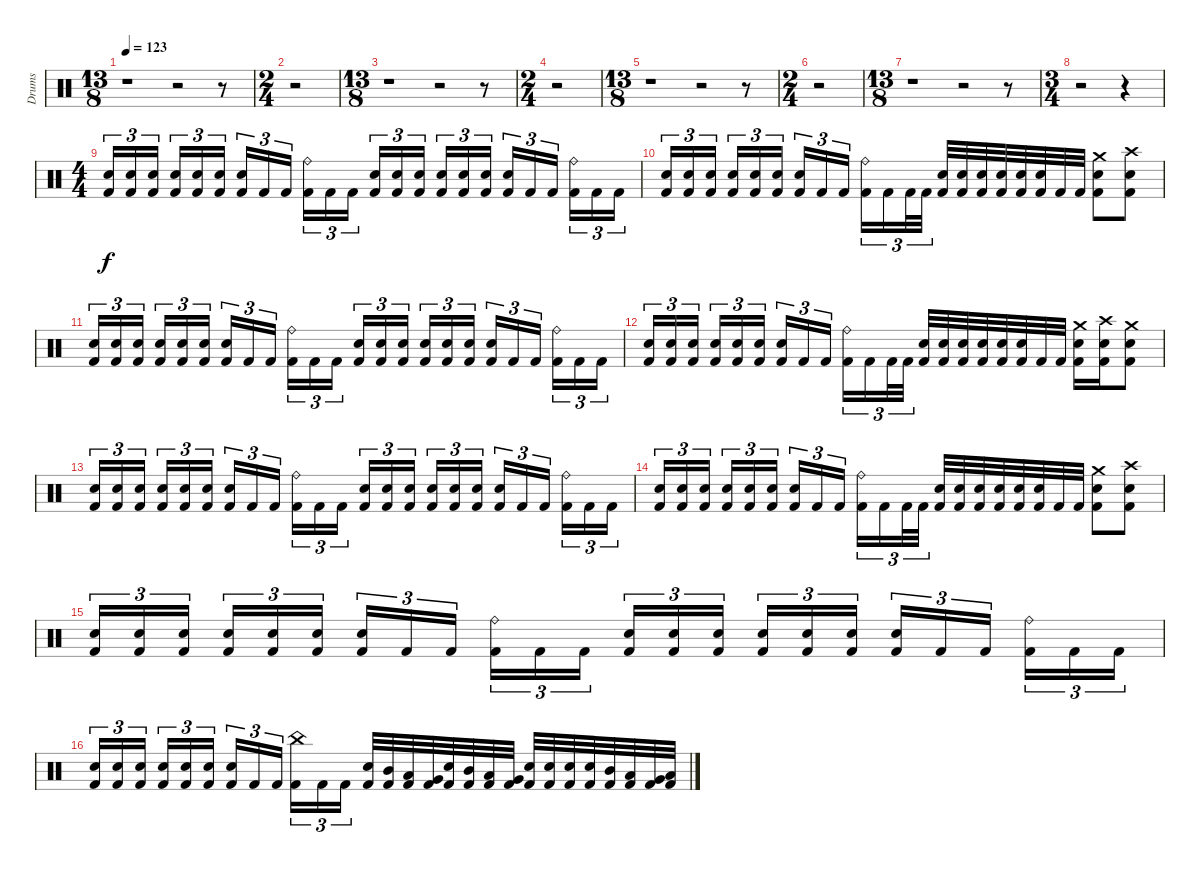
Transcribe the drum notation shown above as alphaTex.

\track ("Drums" "Drums") {instrument percussion}
\staff {score}
\articulation defaults
\ts (13 8)
\tempo 123
\clef neutral
\ks c
r.1{dy f} r.2 r.8 |
\ts (2 4)
r.2 |
\ts (13 8)
r.1 r.2 r.8 |
\ts (2 4)
r.2 |
\ts (13 8)
r.1 r.2 r.8 |
\ts (2 4)
r.2 |
\ts (13 8)
r.1 r.2 r.8 |
\ts (3 4)
r.2 r.4 |
\ts (4 4)
("Electric Snare (hit)" "Kick (hit) 2").16{tu (3 2)} ("Electric Snare (hit)" "Kick (hit) 2").16{tu (3 2)} ("Electric Snare (hit)" "Kick (hit) 2").16{tu (3 2)} ("Electric Snare (hit)" "Kick (hit) 2").16{tu (3 2)} ("Electric Snare (hit)" "Kick (hit) 2").16{tu (3 2)} ("Electric Snare (hit)" "Kick (hit) 2").16{tu (3 2)} ("Electric Snare (hit)" "Kick (hit) 2").16{tu (3 2)} "Kick (hit) 2".16{tu (3 2)} "Kick (hit) 2".16{tu (3 2)} ("Ride (bell)" "Kick (hit) 2").16{tu (3 2)} "Kick (hit) 2".16{tu (3 2)} "Kick (hit) 2".16{tu (3 2)} ("Electric Snare (hit)" "Kick (hit) 2").16{tu (3 2)} ("Electric Snare (hit)" "Kick (hit) 2").16{tu (3 2)} ("Electric Snare (hit)" "Kick (hit) 2").16{tu (3 2)} ("Electric Snare (hit)" "Kick (hit) 2").16{tu (3 2)} ("Electric Snare (hit)" "Kick (hit) 2").16{tu (3 2)} ("Electric Snare (hit)" "Kick (hit) 2").16{tu (3 2)} ("Electric Snare (hit)" "Kick (hit) 2").16{tu (3 2)} "Kick (hit) 2".16{tu (3 2)} "Kick (hit) 2".16{tu (3 2)} ("Ride (bell)" "Kick (hit) 2").16{tu (3 2)} "Kick (hit) 2".16{tu (3 2)} "Kick (hit) 2".16{tu (3 2)} |
("Electric Snare (hit)" "Kick (hit) 2").16{tu (3 2)} ("Electric Snare (hit)" "Kick (hit) 2").16{tu (3 2)} ("Electric Snare (hit)" "Kick (hit) 2").16{tu (3 2)} ("Electric Snare (hit)" "Kick (hit) 2").16{tu (3 2)} ("Electric Snare (hit)" "Kick (hit) 2").16{tu (3 2)} ("Electric Snare (hit)" "Kick (hit) 2").16{tu (3 2)} ("Electric Snare (hit)" "Kick (hit) 2").16{tu (3 2)} "Kick (hit) 2".16{tu (3 2)} "Kick (hit) 2".16{tu (3 2)} ("Ride (bell)" "Kick (hit) 2").16{tu (3 2)} "Kick (hit) 2".16{tu (3 2)} "Kick (hit) 2".32{tu (3 2)} "Kick (hit) 2".32{tu (3 2)} ("Electric Snare (hit)" "Kick (hit) 2").32 ("Electric Snare (hit)" "Kick (hit) 2").32 ("Electric Snare (hit)" "Kick (hit) 2").32 ("Electric Snare (hit)" "Kick (hit) 2").32 ("Electric Snare (hit)" "Kick (hit) 2").32 ("Electric Snare (hit)" "Kick (hit) 2").32 "Kick (hit) 2".32 "Kick (hit) 2".32 ("Crash medium (hit)" "Electric Snare (hit)" "Kick (hit) 2").8 ("Crash high (hit)" "Electric Snare (hit)" "Kick (hit) 2").8 |
("Electric Snare (hit)" "Kick (hit) 2").16{tu (3 2)} ("Electric Snare (hit)" "Kick (hit) 2").16{tu (3 2)} ("Electric Snare (hit)" "Kick (hit) 2").16{tu (3 2)} ("Electric Snare (hit)" "Kick (hit) 2").16{tu (3 2)} ("Electric Snare (hit)" "Kick (hit) 2").16{tu (3 2)} ("Electric Snare (hit)" "Kick (hit) 2").16{tu (3 2)} ("Electric Snare (hit)" "Kick (hit) 2").16{tu (3 2)} "Kick (hit) 2".16{tu (3 2)} "Kick (hit) 2".16{tu (3 2)} ("Ride (bell)" "Kick (hit) 2").16{tu (3 2)} "Kick (hit) 2".16{tu (3 2)} "Kick (hit) 2".16{tu (3 2)} ("Electric Snare (hit)" "Kick (hit) 2").16{tu (3 2)} ("Electric Snare (hit)" "Kick (hit) 2").16{tu (3 2)} ("Electric Snare (hit)" "Kick (hit) 2").16{tu (3 2)} ("Electric Snare (hit)" "Kick (hit) 2").16{tu (3 2)} ("Electric Snare (hit)" "Kick (hit) 2").16{tu (3 2)} ("Electric Snare (hit)" "Kick (hit) 2").16{tu (3 2)} ("Electric Snare (hit)" "Kick (hit) 2").16{tu (3 2)} "Kick (hit) 2".16{tu (3 2)} "Kick (hit) 2".16{tu (3 2)} ("Ride (bell)" "Kick (hit) 2").16{tu (3 2)} "Kick (hit) 2".16{tu (3 2)} "Kick (hit) 2".16{tu (3 2)} |
("Electric Snare (hit)" "Kick (hit) 2").16{tu (3 2)} ("Electric Snare (hit)" "Kick (hit) 2").16{tu (3 2)} ("Electric Snare (hit)" "Kick (hit) 2").16{tu (3 2)} ("Electric Snare (hit)" "Kick (hit) 2").16{tu (3 2)} ("Electric Snare (hit)" "Kick (hit) 2").16{tu (3 2)} ("Electric Snare (hit)" "Kick (hit) 2").16{tu (3 2)} ("Electric Snare (hit)" "Kick (hit) 2").16{tu (3 2)} "Kick (hit) 2".16{tu (3 2)} "Kick (hit) 2".16{tu (3 2)} ("Ride (bell)" "Kick (hit) 2").16{tu (3 2)} "Kick (hit) 2".16{tu (3 2)} "Kick (hit) 2".32{tu (3 2)} "Kick (hit) 2".32{tu (3 2)} ("Electric Snare (hit)" "Kick (hit) 2").32 ("Electric Snare (hit)" "Kick (hit) 2").32 ("Electric Snare (hit)" "Kick (hit) 2").32 ("Electric Snare (hit)" "Kick (hit) 2").32 ("Electric Snare (hit)" "Kick (hit) 2").32 ("Electric Snare (hit)" "Kick (hit) 2").32 "Kick (hit) 2".32 "Kick (hit) 2".32 ("Crash medium (hit)" "Electric Snare (hit)" "Kick (hit) 2").16 ("Crash high (hit)" "Electric Snare (hit)" "Kick (hit) 2").16 ("Crash medium (hit)" "Electric Snare (hit)" "Kick (hit) 2").8 |
("Electric Snare (hit)" "Kick (hit) 2").16{tu (3 2)} ("Electric Snare (hit)" "Kick (hit) 2").16{tu (3 2)} ("Electric Snare (hit)" "Kick (hit) 2").16{tu (3 2)} ("Electric Snare (hit)" "Kick (hit) 2").16{tu (3 2)} ("Electric Snare (hit)" "Kick (hit) 2").16{tu (3 2)} ("Electric Snare (hit)" "Kick (hit) 2").16{tu (3 2)} ("Electric Snare (hit)" "Kick (hit) 2").16{tu (3 2)} "Kick (hit) 2".16{tu (3 2)} "Kick (hit) 2".16{tu (3 2)} ("Ride (bell)" "Kick (hit) 2").16{tu (3 2)} "Kick (hit) 2".16{tu (3 2)} "Kick (hit) 2".16{tu (3 2)} ("Electric Snare (hit)" "Kick (hit) 2").16{tu (3 2)} ("Electric Snare (hit)" "Kick (hit) 2").16{tu (3 2)} ("Electric Snare (hit)" "Kick (hit) 2").16{tu (3 2)} ("Electric Snare (hit)" "Kick (hit) 2").16{tu (3 2)} ("Electric Snare (hit)" "Kick (hit) 2").16{tu (3 2)} ("Electric Snare (hit)" "Kick (hit) 2").16{tu (3 2)} ("Electric Snare (hit)" "Kick (hit) 2").16{tu (3 2)} "Kick (hit) 2".16{tu (3 2)} "Kick (hit) 2".16{tu (3 2)} ("Ride (bell)" "Kick (hit) 2").16{tu (3 2)} "Kick (hit) 2".16{tu (3 2)} "Kick (hit) 2".16{tu (3 2)} |
("Electric Snare (hit)" "Kick (hit) 2").16{tu (3 2)} ("Electric Snare (hit)" "Kick (hit) 2").16{tu (3 2)} ("Electric Snare (hit)" "Kick (hit) 2").16{tu (3 2)} ("Electric Snare (hit)" "Kick (hit) 2").16{tu (3 2)} ("Electric Snare (hit)" "Kick (hit) 2").16{tu (3 2)} ("Electric Snare (hit)" "Kick (hit) 2").16{tu (3 2)} ("Electric Snare (hit)" "Kick (hit) 2").16{tu (3 2)} "Kick (hit) 2".16{tu (3 2)} "Kick (hit) 2".16{tu (3 2)} ("Ride (bell)" "Kick (hit) 2").16{tu (3 2)} "Kick (hit) 2".16{tu (3 2)} "Kick (hit) 2".32{tu (3 2)} "Kick (hit) 2".32{tu (3 2)} ("Electric Snare (hit)" "Kick (hit) 2").32 ("Electric Snare (hit)" "Kick (hit) 2").32 ("Electric Snare (hit)" "Kick (hit) 2").32 ("Electric Snare (hit)" "Kick (hit) 2").32 ("Electric Snare (hit)" "Kick (hit) 2").32 ("Electric Snare (hit)" "Kick (hit) 2").32 "Kick (hit) 2".32 "Kick (hit) 2".32 ("Crash medium (hit)" "Electric Snare (hit)" "Kick (hit) 2").8 ("Crash high (hit)" "Electric Snare (hit)" "Kick (hit) 2").8 |
("Electric Snare (hit)" "Kick (hit) 2").16{tu (3 2)} ("Electric Snare (hit)" "Kick (hit) 2").16{tu (3 2)} ("Electric Snare (hit)" "Kick (hit) 2").16{tu (3 2)} ("Electric Snare (hit)" "Kick (hit) 2").16{tu (3 2)} ("Electric Snare (hit)" "Kick (hit) 2").16{tu (3 2)} ("Electric Snare (hit)" "Kick (hit) 2").16{tu (3 2)} ("Electric Snare (hit)" "Kick (hit) 2").16{tu (3 2)} "Kick (hit) 2".16{tu (3 2)} "Kick (hit) 2".16{tu (3 2)} ("Ride (bell)" "Kick (hit) 2").16{tu (3 2)} "Kick (hit) 2".16{tu (3 2)} "Kick (hit) 2".16{tu (3 2)} ("Electric Snare (hit)" "Kick (hit) 2").16{tu (3 2)} ("Electric Snare (hit)" "Kick (hit) 2").16{tu (3 2)} ("Electric Snare (hit)" "Kick (hit) 2").16{tu (3 2)} ("Electric Snare (hit)" "Kick (hit) 2").16{tu (3 2)} ("Electric Snare (hit)" "Kick (hit) 2").16{tu (3 2)} ("Electric Snare (hit)" "Kick (hit) 2").16{tu (3 2)} ("Electric Snare (hit)" "Kick (hit) 2").16{tu (3 2)} "Kick (hit) 2".16{tu (3 2)} "Kick (hit) 2".16{tu (3 2)} ("Ride (bell)" "Kick (hit) 2").16{tu (3 2)} "Kick (hit) 2".16{tu (3 2)} "Kick (hit) 2".16{tu (3 2)} |
("Electric Snare (hit)" "Kick (hit) 2").16{tu (3 2)} ("Electric Snare (hit)" "Kick (hit) 2").16{tu (3 2)} ("Electric Snare (hit)" "Kick (hit) 2").16{tu (3 2)} ("Electric Snare (hit)" "Kick (hit) 2").16{tu (3 2)} ("Electric Snare (hit)" "Kick (hit) 2").16{tu (3 2)} ("Electric Snare (hit)" "Kick (hit) 2").16{tu (3 2)} ("Electric Snare (hit)" "Kick (hit) 2").16{tu (3 2)} "Kick (hit) 2".16{tu (3 2)} "Kick (hit) 2".16{tu (3 2)} ("China (hit)" "Kick (hit) 2").16{tu (3 2)} "Kick (hit) 2".16{tu (3 2)} "Kick (hit) 2".16{tu (3 2)} ("Electric Snare (hit)" "Kick (hit) 2").32 ("Mid Tom (hit)" "Kick (hit) 2").32 ("Low Tom (hit)" "Kick (hit) 2").32 ("Very Low Tom (hit)" "Kick (hit) 2").32 ("Electric Snare (hit)" "Kick (hit) 2").32 ("Mid Tom (hit)" "Kick (hit) 2").32 ("Low Tom (hit)" "Kick (hit) 2").32 ("Very Low Tom (hit)" "Kick (hit) 2").32 ("Electric Snare (hit)" "Kick (hit) 2").32 ("Electric Snare (hit)" "Kick (hit) 2").32 ("Electric Snare (hit)" "Kick (hit) 2").32 ("Electric Snare (hit)" "Kick (hit) 2").32 ("Mid Tom (hit)" "Kick (hit) 2").32 ("Low Tom (hit)" "Kick (hit) 2").32 ("Very Low Tom (hit)" "Kick (hit) 2").32 ("Low Floor Tom (hit)" "Kick (hit) 2").32
